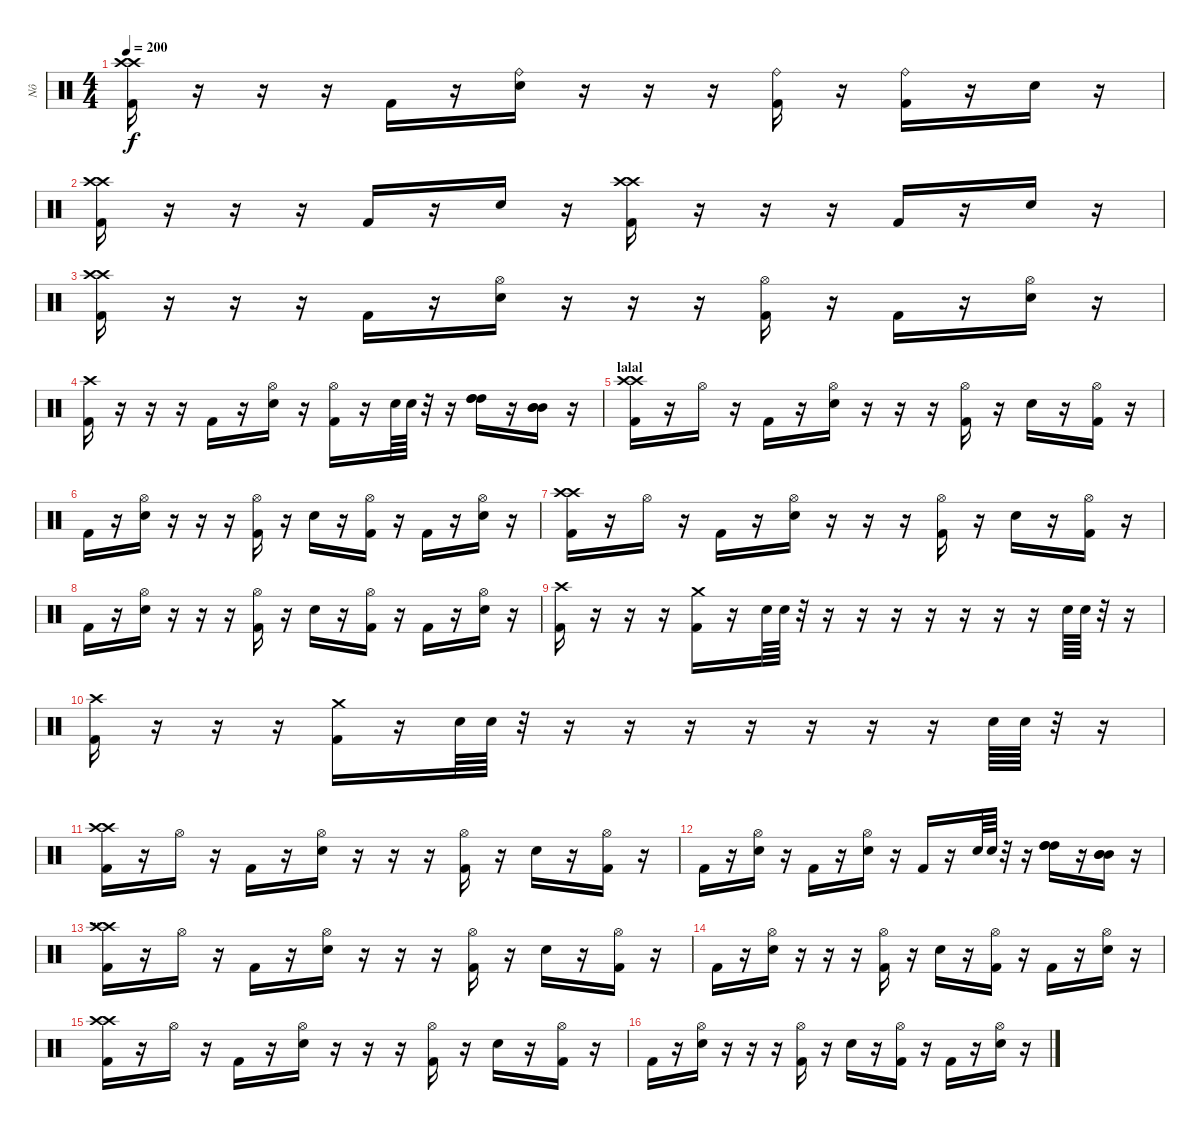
\track ("Nô" "Nô") {instrument percussion}
\staff {score}
\articulation defaults
\ts (4 4)
\tempo 200
\clef neutral
\ks c
("Crash high (hit)" "Crash high (hit)" "Kick (hit) 2").16{dy f} r.16 r.16 r.16 "Kick (hit) 2".16 r.16 ("Ride (bell)" "Electric Snare (hit)").16 r.16 r.16 r.16 ("Ride (bell)" "Kick (hit) 2").16 r.16 ("Ride (bell)" "Kick (hit) 2").16 r.16 "Electric Snare (hit)".16 r.16 |
("Crash high (hit)" "Crash high (hit)" "Kick (hit) 2").16 r.16 r.16 r.16 "Kick (hit) 2".16 r.16 "Electric Snare (hit)".16 r.16 ("Crash high (hit)" "Crash high (hit)" "Kick (hit) 2").16 r.16 r.16 r.16 "Kick (hit) 2".16 r.16 "Electric Snare (hit)".16 r.16 |
("Crash high (hit)" "Crash high (hit)" "Kick (hit) 2").16 r.16 r.16 r.16 "Kick (hit) 2".16 r.16 ("Hi-Hat (open)" "Electric Snare (hit)").16 r.16 r.16 r.16 ("Hi-Hat (open)" "Kick (hit) 2").16 r.16 "Kick (hit) 2".16 r.16 ("Hi-Hat (open)" "Electric Snare (hit)").16 r.16 |
("Crash high (hit)" "Kick (hit) 2").16 r.16 r.16 r.16 "Kick (hit) 2".16 r.16 ("Hi-Hat (open)" "Electric Snare (hit)").16 r.16 ("Hi-Hat (open)" "Kick (hit) 2").16 r.16 "Electric Snare (hit)".64 "Electric Snare (hit)".64 r.32 r.16 ("High Tom (hit)" "High Tom (hit)" "High Tom (hit)").16 r.16 ("Mid Tom (hit)" "Mid Tom (hit)" "Mid Tom (hit)").16 r.16 |
\section ("" "lalal")
("Crash high (hit)" "Crash high (hit)" "Kick (hit) 2").16 r.16 "Hi-Hat (open)".16 r.16 "Kick (hit) 2".16 r.16 ("Hi-Hat (open)" "Electric Snare (hit)").16 r.16 r.16 r.16 ("Hi-Hat (open)" "Kick (hit) 2").16 r.16 "Electric Snare (hit)".16 r.16 ("Hi-Hat (open)" "Kick (hit) 2").16 r.16 |
"Kick (hit) 2".16 r.16 ("Hi-Hat (open)" "Electric Snare (hit)").16 r.16 r.16 r.16 ("Hi-Hat (open)" "Kick (hit) 2").16 r.16 "Electric Snare (hit)".16 r.16 ("Hi-Hat (open)" "Kick (hit) 2").16 r.16 "Kick (hit) 2".16 r.16 ("Hi-Hat (open)" "Electric Snare (hit)").16 r.16 |
("Crash high (hit)" "Crash high (hit)" "Kick (hit) 2").16 r.16 "Hi-Hat (open)".16 r.16 "Kick (hit) 2".16 r.16 ("Hi-Hat (open)" "Electric Snare (hit)").16 r.16 r.16 r.16 ("Hi-Hat (open)" "Kick (hit) 2").16 r.16 "Electric Snare (hit)".16 r.16 ("Hi-Hat (open)" "Kick (hit) 2").16 r.16 |
"Kick (hit) 2".16 r.16 ("Hi-Hat (open)" "Electric Snare (hit)").16 r.16 r.16 r.16 ("Hi-Hat (open)" "Kick (hit) 2").16 r.16 "Electric Snare (hit)".16 r.16 ("Hi-Hat (open)" "Kick (hit) 2").16 r.16 "Kick (hit) 2".16 r.16 ("Hi-Hat (open)" "Electric Snare (hit)").16 r.16 |
("Crash high (hit)" "Kick (hit) 2").16 r.16 r.16 r.16 ("Crash medium (hit)" "Kick (hit) 2").16 r.16 "Electric Snare (hit)".64 "Electric Snare (hit)".64 r.32 r.16 r.16 r.16 r.16 r.16 r.16 r.16 "Electric Snare (hit)".64 "Electric Snare (hit)".64 r.32 r.16 |
("Crash high (hit)" "Kick (hit) 2").16 r.16 r.16 r.16 ("Crash medium (hit)" "Kick (hit) 2").16 r.16 "Electric Snare (hit)".64 "Electric Snare (hit)".64 r.32 r.16 r.16 r.16 r.16 r.16 r.16 r.16 "Electric Snare (hit)".64 "Electric Snare (hit)".64 r.32 r.16 |
("Crash high (hit)" "Crash high (hit)" "Kick (hit) 2").16 r.16 "Hi-Hat (open)".16 r.16 "Kick (hit) 2".16 r.16 ("Hi-Hat (open)" "Electric Snare (hit)").16 r.16 r.16 r.16 ("Hi-Hat (open)" "Kick (hit) 2").16 r.16 "Electric Snare (hit)".16 r.16 ("Hi-Hat (open)" "Kick (hit) 2").16 r.16 |
"Kick (hit) 2".16 r.16 ("Hi-Hat (open)" "Electric Snare (hit)").16 r.16 "Kick (hit) 2".16 r.16 ("Hi-Hat (open)" "Electric Snare (hit)").16 r.16 "Kick (hit) 2".16 r.16 "Electric Snare (hit)".64 "Electric Snare (hit)".64 r.32 r.16 ("High Tom (hit)" "High Tom (hit)" "High Tom (hit)").16 r.16 ("Mid Tom (hit)" "Mid Tom (hit)" "Mid Tom (hit)").16 r.16 |
\section ("" "...")
("Crash high (hit)" "Crash high (hit)" "Kick (hit) 2").16 r.16 "Hi-Hat (open)".16 r.16 "Kick (hit) 2".16 r.16 ("Hi-Hat (open)" "Electric Snare (hit)").16 r.16 r.16 r.16 ("Hi-Hat (open)" "Kick (hit) 2").16 r.16 "Electric Snare (hit)".16 r.16 ("Hi-Hat (open)" "Kick (hit) 2").16 r.16 |
"Kick (hit) 2".16 r.16 ("Hi-Hat (open)" "Electric Snare (hit)").16 r.16 r.16 r.16 ("Hi-Hat (open)" "Kick (hit) 2").16 r.16 "Electric Snare (hit)".16 r.16 ("Hi-Hat (open)" "Kick (hit) 2").16 r.16 "Kick (hit) 2".16 r.16 ("Hi-Hat (open)" "Electric Snare (hit)").16 r.16 |
("Crash high (hit)" "Crash high (hit)" "Kick (hit) 2").16 r.16 "Hi-Hat (open)".16 r.16 "Kick (hit) 2".16 r.16 ("Hi-Hat (open)" "Electric Snare (hit)").16 r.16 r.16 r.16 ("Hi-Hat (open)" "Kick (hit) 2").16 r.16 "Electric Snare (hit)".16 r.16 ("Hi-Hat (open)" "Kick (hit) 2").16 r.16 |
"Kick (hit) 2".16 r.16 ("Hi-Hat (open)" "Electric Snare (hit)").16 r.16 r.16 r.16 ("Hi-Hat (open)" "Kick (hit) 2").16 r.16 "Electric Snare (hit)".16 r.16 ("Hi-Hat (open)" "Kick (hit) 2").16 r.16 "Kick (hit) 2".16 r.16 ("Hi-Hat (open)" "Electric Snare (hit)").16 r.16
